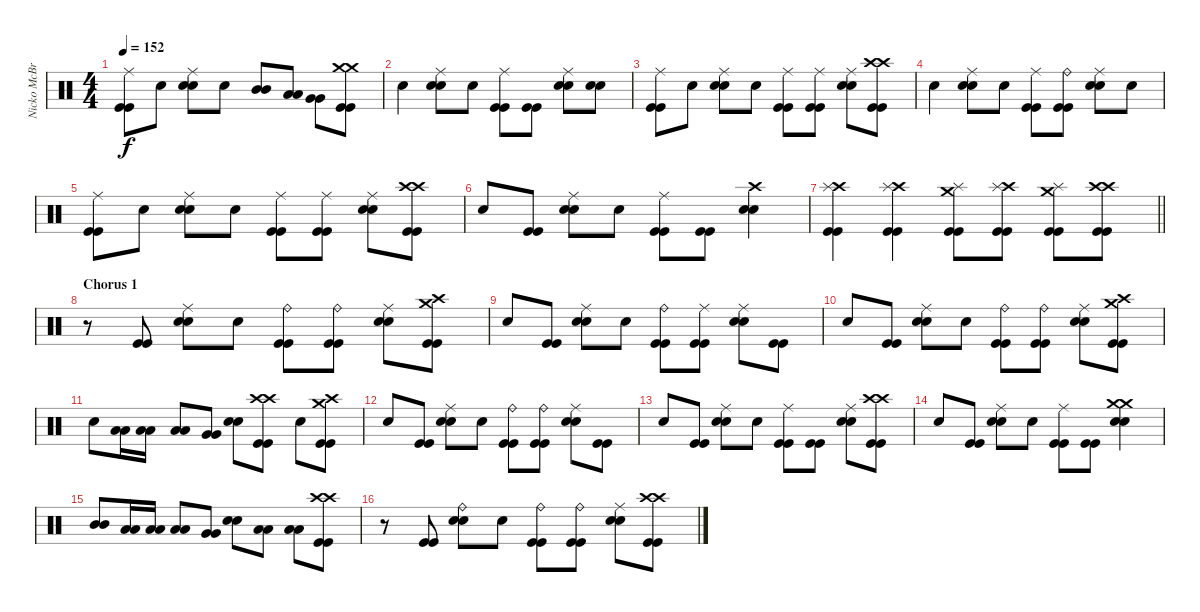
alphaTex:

\track ("Nicko McBrain" "Nicko McBr") {instrument percussion}
\staff {score}
\articulation defaults
\ts (4 4)
\tempo 152
\clef neutral
\ks c
("Ride (middle)" "Kick (hit)" "Kick (hit)").8{dy f} "Snare (hit)".8 ("Ride (middle)" "Electric Snare (hit)" "Electric Snare (hit)").8 "Snare (hit)".8 ("Mid Tom (hit)" "Mid Tom (hit)").8 ("Low Tom (hit)" "Low Tom (hit)").8 ("Very Low Tom (hit)" "Very Low Tom (hit)").8 ("Crash medium (hit)" "Crash medium (hit)" "Kick (hit)" "Kick (hit)").8 |
"Snare (hit)".4 ("Ride (middle)" "Electric Snare (hit)" "Electric Snare (hit)").8 "Snare (hit)".8 ("Ride (middle)" "Kick (hit)" "Kick (hit)").8 ("Kick (hit)" "Kick (hit)").8 ("Ride (middle)" "Electric Snare (hit)" "Electric Snare (hit)").8 ("Snare (hit)" "Snare (hit)").8 |
("Ride (middle)" "Kick (hit)" "Kick (hit)").8 "Snare (hit)".8 ("Ride (middle)" "Electric Snare (hit)" "Electric Snare (hit)").8 "Snare (hit)".8 ("Ride (middle)" "Kick (hit)" "Kick (hit)").8 ("Ride (middle)" "Kick (hit)" "Kick (hit)").8 ("Ride (middle)" "Electric Snare (hit)" "Electric Snare (hit)").8 ("Crash high (hit)" "Crash high (hit)" "Kick (hit)" "Kick (hit)").8 |
"Snare (hit)".4 ("Ride (middle)" "Electric Snare (hit)" "Electric Snare (hit)").8 "Snare (hit)".8 ("Ride (middle)" "Kick (hit)" "Kick (hit)").8 ("Ride (bell)" "Kick (hit)" "Kick (hit)").8 ("Ride (middle)" "Electric Snare (hit)" "Electric Snare (hit)").8 "Snare (hit)".8 |
("Ride (middle)" "Kick (hit)" "Kick (hit)").8 "Snare (hit)".8 ("Ride (middle)" "Electric Snare (hit)" "Electric Snare (hit)").8 "Snare (hit)".8 ("Ride (middle)" "Kick (hit)" "Kick (hit)").8 ("Ride (middle)" "Kick (hit)" "Kick (hit)").8 ("Ride (middle)" "Electric Snare (hit)" "Electric Snare (hit)").8 ("Crash high (hit)" "Crash high (hit)" "Kick (hit)" "Kick (hit)").8 |
"Snare (hit)".8 ("Kick (hit)" "Kick (hit)").8 ("Ride (middle)" "Electric Snare (hit)" "Electric Snare (hit)").8 "Snare (hit)".8 ("Ride (middle)" "Kick (hit)" "Kick (hit)").8 ("Kick (hit)" "Kick (hit)").8 ("Crash high (hit)" "Electric Snare (hit)" "Electric Snare (hit)").4 |
\barLineRight lightlight
("Crash high (hit)" "Splash (hit)" "Kick (hit)" "Kick (hit)").4 ("Crash high (hit)" "Splash (hit)" "Kick (hit)" "Kick (hit)").4 ("Crash medium (hit)" "Splash (hit)" "Kick (hit)" "Kick (hit)").8 ("Crash high (hit)" "Splash (hit)" "Kick (hit)" "Kick (hit)").8 ("Crash medium (hit)" "Splash (hit)" "Kick (hit)" "Kick (hit)").8 ("Crash high (hit)" "Crash high (hit)" "Kick (hit)" "Kick (hit)").8 |
\section ("" "Chorus 1")
r.8 ("Kick (hit)" "Kick (hit)").8 ("Ride (middle)" "Electric Snare (hit)" "Electric Snare (hit)").8 "Snare (hit)".8 ("Ride (bell)" "Kick (hit)" "Kick (hit)").8 ("Ride (bell)" "Kick (hit)" "Kick (hit)").8 ("Ride (middle)" "Electric Snare (hit)" "Electric Snare (hit)").8 ("Crash high (hit)" "Crash medium (hit)" "Kick (hit)" "Kick (hit)").8 |
"Snare (hit)".8 ("Kick (hit)" "Kick (hit)").8 ("Ride (middle)" "Electric Snare (hit)" "Electric Snare (hit)").8 "Snare (hit)".8 ("Ride (bell)" "Kick (hit)" "Kick (hit)").8 ("Ride (middle)" "Kick (hit)" "Kick (hit)").8 ("Ride (middle)" "Electric Snare (hit)" "Electric Snare (hit)").8 ("Kick (hit)" "Kick (hit)").8 |
"Snare (hit)".8 ("Kick (hit)" "Kick (hit)").8 ("Ride (middle)" "Electric Snare (hit)" "Electric Snare (hit)").8 "Snare (hit)".8 ("Ride (bell)" "Kick (hit)" "Kick (hit)").8 ("Ride (bell)" "Kick (hit)" "Kick (hit)").8 ("Ride (middle)" "Electric Snare (hit)" "Electric Snare (hit)").8 ("Crash high (hit)" "Crash medium (hit)" "Kick (hit)" "Kick (hit)").8 |
"Snare (hit)".8 ("Low Tom (hit)" "Low Tom (hit)").16 ("Low Tom (hit)" "Low Tom (hit)").16 ("Low Tom (hit)" "Low Tom (hit)").8 ("Very Low Tom (hit)" "Very Low Tom (hit)").8 ("Electric Snare (hit)" "Electric Snare (hit)").8 ("Crash high (hit)" "Crash high (hit)" "Kick (hit)" "Kick (hit)").8 "Snare (hit)".8 ("Crash high (hit)" "Crash medium (hit)" "Kick (hit)" "Kick (hit)").8 |
"Snare (hit)".8 ("Kick (hit)" "Kick (hit)").8 ("Ride (middle)" "Electric Snare (hit)" "Electric Snare (hit)").8 "Snare (hit)".8 ("Ride (bell)" "Kick (hit)" "Kick (hit)").8 ("Ride (bell)" "Kick (hit)" "Kick (hit)").8 ("Ride (middle)" "Electric Snare (hit)" "Electric Snare (hit)").8 ("Kick (hit)" "Kick (hit)").8 |
"Snare (hit)".8 ("Kick (hit)" "Kick (hit)").8 ("Ride (middle)" "Electric Snare (hit)" "Electric Snare (hit)").8 "Snare (hit)".8 ("Ride (middle)" "Kick (hit)" "Kick (hit)").8 ("Kick (hit)" "Kick (hit)").8 ("Ride (middle)" "Electric Snare (hit)" "Electric Snare (hit)").8 ("Crash high (hit)" "Crash high (hit)" "Kick (hit)" "Kick (hit)").8 |
"Snare (hit)".8 ("Kick (hit)" "Kick (hit)").8 ("Ride (middle)" "Electric Snare (hit)" "Electric Snare (hit)").8 "Snare (hit)".8 ("Ride (middle)" "Kick (hit)" "Kick (hit)").8 ("Kick (hit)" "Kick (hit)").8 ("Crash medium (hit)" "Crash medium (hit)" "Electric Snare (hit)" "Electric Snare (hit)").4 |
("Mid Tom (hit)" "Mid Tom (hit)").8 ("Low Tom (hit)" "Low Tom (hit)").16 ("Low Tom (hit)" "Low Tom (hit)").16 ("Low Tom (hit)" "Low Tom (hit)").8 ("Very Low Tom (hit)" "Very Low Tom (hit)").8 ("Electric Snare (hit)" "Electric Snare (hit)").8 ("Low Floor Tom (hit)" "Low Floor Tom (hit)").8 ("Low Floor Tom (hit)" "Low Floor Tom (hit)").8 ("Crash high (hit)" "Crash high (hit)" "Kick (hit)" "Kick (hit)").8 |
r.8 ("Kick (hit)" "Kick (hit)").8 ("Ride (bell)" "Electric Snare (hit)" "Electric Snare (hit)").8 "Snare (hit)".8 ("Ride (bell)" "Kick (hit)" "Kick (hit)").8 ("Ride (bell)" "Kick (hit)" "Kick (hit)").8 ("Ride (middle)" "Electric Snare (hit)" "Electric Snare (hit)").8 ("Crash high (hit)" "Crash high (hit)" "Kick (hit)" "Kick (hit)").8
